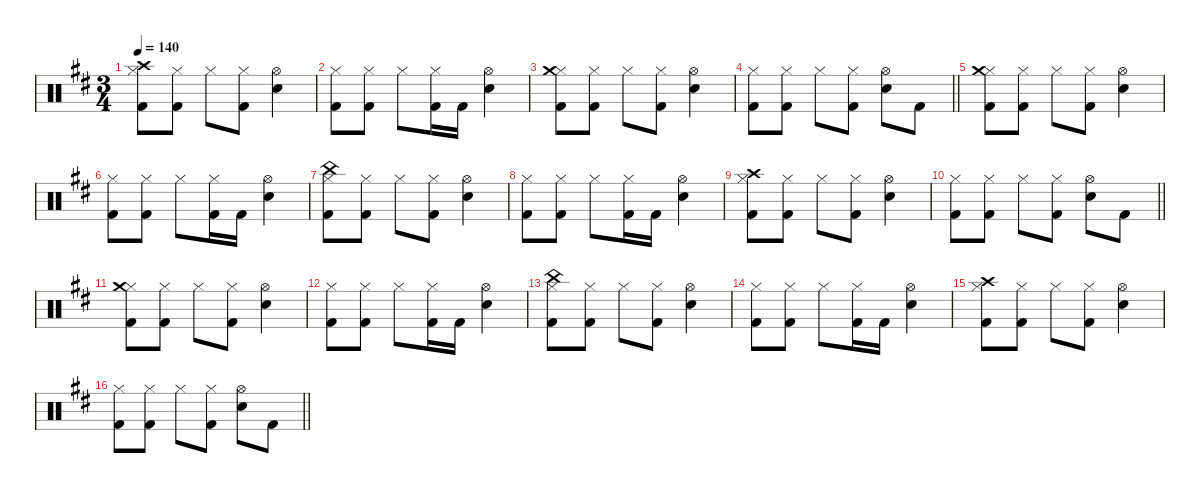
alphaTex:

\defaultSystemsLayout 4
\hideDynamics
\bracketExtendMode nobrackets
\singleTrackTrackNamePolicy hidden
\multiTrackTrackNamePolicy hidden
\otherSystemsTrackNameOrientation horizontal
\track ("Percussions" "drm.") {instrument percussion}
\staff {score}
\articulation defaults
\ts (3 4)
\tempo 140
\clef neutral
\ks d
("Hi-Hat (closed)"{acc forcenatural} "Crash high (hit)"{acc forcenatural} "Kick (hit) 2"{acc forcenatural}).8{dy f beam Down} ("Hi-Hat (closed)"{acc forcenatural} "Kick (hit) 2"{acc forcenatural}).8{beam Down} "Hi-Hat (closed)"{acc forcenatural}.8{beam Down} ("Hi-Hat (closed)"{acc forcenatural} "Kick (hit) 2"{acc forcenatural}).8{beam Down} ("Hi-Hat (open)"{acc forcenatural} "Snare (hit) 2"{acc forcenatural}).4{beam Down} |
("Hi-Hat (closed)"{acc forcenatural} "Kick (hit) 2"{acc forcenatural}).8{beam Down} ("Hi-Hat (closed)"{acc forcenatural} "Kick (hit) 2"{acc forcenatural}).8{beam Down} "Hi-Hat (closed)"{acc forcenatural}.8{beam Down} ("Hi-Hat (closed)"{acc forcenatural} "Kick (hit) 2"{acc forcenatural}).16{beam Down} "Kick (hit) 2"{acc forcenatural}.16{beam Down} ("Hi-Hat (open)"{acc forcenatural} "Snare (hit) 2"{acc forcenatural}).4{beam Down} |
("Hi-Hat (closed)"{acc forcenatural} "Crash medium (hit)"{acc forcenatural} "Kick (hit) 2"{acc forcenatural}).8{beam Down} ("Hi-Hat (closed)"{acc forcenatural} "Kick (hit) 2"{acc forcenatural}).8{beam Down} "Hi-Hat (closed)"{acc forcenatural}.8{beam Down} ("Hi-Hat (closed)"{acc forcenatural} "Kick (hit) 2"{acc forcenatural}).8{beam Down} ("Hi-Hat (open)"{acc forcenatural} "Snare (hit) 2"{acc forcenatural}).4{beam Down} |
\barLineRight lightlight
("Hi-Hat (closed)"{acc forcenatural} "Kick (hit) 2"{acc forcenatural}).8{beam Down} ("Hi-Hat (closed)"{acc forcenatural} "Kick (hit) 2"{acc forcenatural}).8{beam Down} "Hi-Hat (closed)"{acc forcenatural}.8{beam Down} ("Hi-Hat (closed)"{acc forcenatural} "Kick (hit) 2"{acc forcenatural}).8{beam Down} ("Hi-Hat (open)"{acc forcenatural} "Snare (hit) 2"{acc forcenatural}).8{beam Down} "Kick (hit) 2"{acc forcenatural}.8{beam Down} |
("Hi-Hat (closed)"{acc forcenatural} "Crash medium (hit)"{acc forcenatural} "Kick (hit) 2"{acc forcenatural}).8{beam Down} ("Hi-Hat (closed)"{acc forcenatural} "Kick (hit) 2"{acc forcenatural}).8{beam Down} "Hi-Hat (closed)"{acc forcenatural}.8{beam Down} ("Hi-Hat (closed)"{acc forcenatural} "Kick (hit) 2"{acc forcenatural}).8{beam Down} ("Hi-Hat (open)"{acc forcenatural} "Snare (hit) 2"{acc forcenatural}).4{beam Down} |
("Hi-Hat (closed)"{acc forcenatural} "Kick (hit) 2"{acc forcenatural}).8{beam Down} ("Hi-Hat (closed)"{acc forcenatural} "Kick (hit) 2"{acc forcenatural}).8{beam Down} "Hi-Hat (closed)"{acc forcenatural}.8{beam Down} ("Hi-Hat (closed)"{acc forcenatural} "Kick (hit) 2"{acc forcenatural}).16{beam Down} "Kick (hit) 2"{acc forcenatural}.16{beam Down} ("Hi-Hat (open)"{acc forcenatural} "Snare (hit) 2"{acc forcenatural}).4{beam Down} |
("Hi-Hat (closed)"{acc forcenatural} "China (hit)"{acc forcenatural} "Kick (hit) 2"{acc forcenatural}).8{beam Down} ("Hi-Hat (closed)"{acc forcenatural} "Kick (hit) 2"{acc forcenatural}).8{beam Down} "Hi-Hat (closed)"{acc forcenatural}.8{beam Down} ("Hi-Hat (closed)"{acc forcenatural} "Kick (hit) 2"{acc forcenatural}).8{beam Down} ("Hi-Hat (open)"{acc forcenatural} "Snare (hit) 2"{acc forcenatural}).4{beam Down} |
("Hi-Hat (closed)"{acc forcenatural} "Kick (hit) 2"{acc forcenatural}).8{beam Down} ("Hi-Hat (closed)"{acc forcenatural} "Kick (hit) 2"{acc forcenatural}).8{beam Down} "Hi-Hat (closed)"{acc forcenatural}.8{beam Down} ("Hi-Hat (closed)"{acc forcenatural} "Kick (hit) 2"{acc forcenatural}).16{beam Down} "Kick (hit) 2"{acc forcenatural}.16{beam Down} ("Hi-Hat (open)"{acc forcenatural} "Snare (hit) 2"{acc forcenatural}).4{beam Down} |
("Hi-Hat (closed)"{acc forcenatural} "Crash high (hit)"{acc forcenatural} "Kick (hit) 2"{acc forcenatural}).8{beam Down} ("Hi-Hat (closed)"{acc forcenatural} "Kick (hit) 2"{acc forcenatural}).8{beam Down} "Hi-Hat (closed)"{acc forcenatural}.8{beam Down} ("Hi-Hat (closed)"{acc forcenatural} "Kick (hit) 2"{acc forcenatural}).8{beam Down} ("Hi-Hat (open)"{acc forcenatural} "Snare (hit) 2"{acc forcenatural}).4{beam Down} |
\barLineRight lightlight
("Hi-Hat (closed)"{acc forcenatural} "Kick (hit) 2"{acc forcenatural}).8{beam Down} ("Hi-Hat (closed)"{acc forcenatural} "Kick (hit) 2"{acc forcenatural}).8{beam Down} "Hi-Hat (closed)"{acc forcenatural}.8{beam Down} ("Hi-Hat (closed)"{acc forcenatural} "Kick (hit) 2"{acc forcenatural}).8{beam Down} ("Hi-Hat (open)"{acc forcenatural} "Snare (hit) 2"{acc forcenatural}).8{beam Down} "Kick (hit) 2"{acc forcenatural}.8{beam Down} |
("Hi-Hat (closed)"{acc forcenatural} "Crash medium (hit)"{acc forcenatural} "Kick (hit) 2"{acc forcenatural}).8{beam Down} ("Hi-Hat (closed)"{acc forcenatural} "Kick (hit) 2"{acc forcenatural}).8{beam Down} "Hi-Hat (closed)"{acc forcenatural}.8{beam Down} ("Hi-Hat (closed)"{acc forcenatural} "Kick (hit) 2"{acc forcenatural}).8{beam Down} ("Hi-Hat (open)"{acc forcenatural} "Snare (hit) 2"{acc forcenatural}).4{beam Down} |
("Hi-Hat (closed)"{acc forcenatural} "Kick (hit) 2"{acc forcenatural}).8{beam Down} ("Hi-Hat (closed)"{acc forcenatural} "Kick (hit) 2"{acc forcenatural}).8{beam Down} "Hi-Hat (closed)"{acc forcenatural}.8{beam Down} ("Hi-Hat (closed)"{acc forcenatural} "Kick (hit) 2"{acc forcenatural}).16{beam Down} "Kick (hit) 2"{acc forcenatural}.16{beam Down} ("Hi-Hat (open)"{acc forcenatural} "Snare (hit) 2"{acc forcenatural}).4{beam Down} |
("Hi-Hat (closed)"{acc forcenatural} "China (hit)"{acc forcenatural} "Kick (hit) 2"{acc forcenatural}).8{beam Down} ("Hi-Hat (closed)"{acc forcenatural} "Kick (hit) 2"{acc forcenatural}).8{beam Down} "Hi-Hat (closed)"{acc forcenatural}.8{beam Down} ("Hi-Hat (closed)"{acc forcenatural} "Kick (hit) 2"{acc forcenatural}).8{beam Down} ("Hi-Hat (open)"{acc forcenatural} "Snare (hit) 2"{acc forcenatural}).4{beam Down} |
("Hi-Hat (closed)"{acc forcenatural} "Kick (hit) 2"{acc forcenatural}).8{beam Down} ("Hi-Hat (closed)"{acc forcenatural} "Kick (hit) 2"{acc forcenatural}).8{beam Down} "Hi-Hat (closed)"{acc forcenatural}.8{beam Down} ("Hi-Hat (closed)"{acc forcenatural} "Kick (hit) 2"{acc forcenatural}).16{beam Down} "Kick (hit) 2"{acc forcenatural}.16{beam Down} ("Hi-Hat (open)"{acc forcenatural} "Snare (hit) 2"{acc forcenatural}).4{beam Down} |
("Hi-Hat (closed)"{acc forcenatural} "Crash high (hit)"{acc forcenatural} "Kick (hit) 2"{acc forcenatural}).8{beam Down} ("Hi-Hat (closed)"{acc forcenatural} "Kick (hit) 2"{acc forcenatural}).8{beam Down} "Hi-Hat (closed)"{acc forcenatural}.8{beam Down} ("Hi-Hat (closed)"{acc forcenatural} "Kick (hit) 2"{acc forcenatural}).8{beam Down} ("Hi-Hat (open)"{acc forcenatural} "Snare (hit) 2"{acc forcenatural}).4{beam Down} |
\barLineRight lightlight
("Hi-Hat (closed)"{acc forcenatural} "Kick (hit) 2"{acc forcenatural}).8{beam Down} ("Hi-Hat (closed)"{acc forcenatural} "Kick (hit) 2"{acc forcenatural}).8{beam Down} "Hi-Hat (closed)"{acc forcenatural}.8{beam Down} ("Hi-Hat (closed)"{acc forcenatural} "Kick (hit) 2"{acc forcenatural}).8{beam Down} ("Hi-Hat (open)"{acc forcenatural} "Snare (hit) 2"{acc forcenatural}).8{beam Down} "Kick (hit) 2"{acc forcenatural}.8{beam Down}
